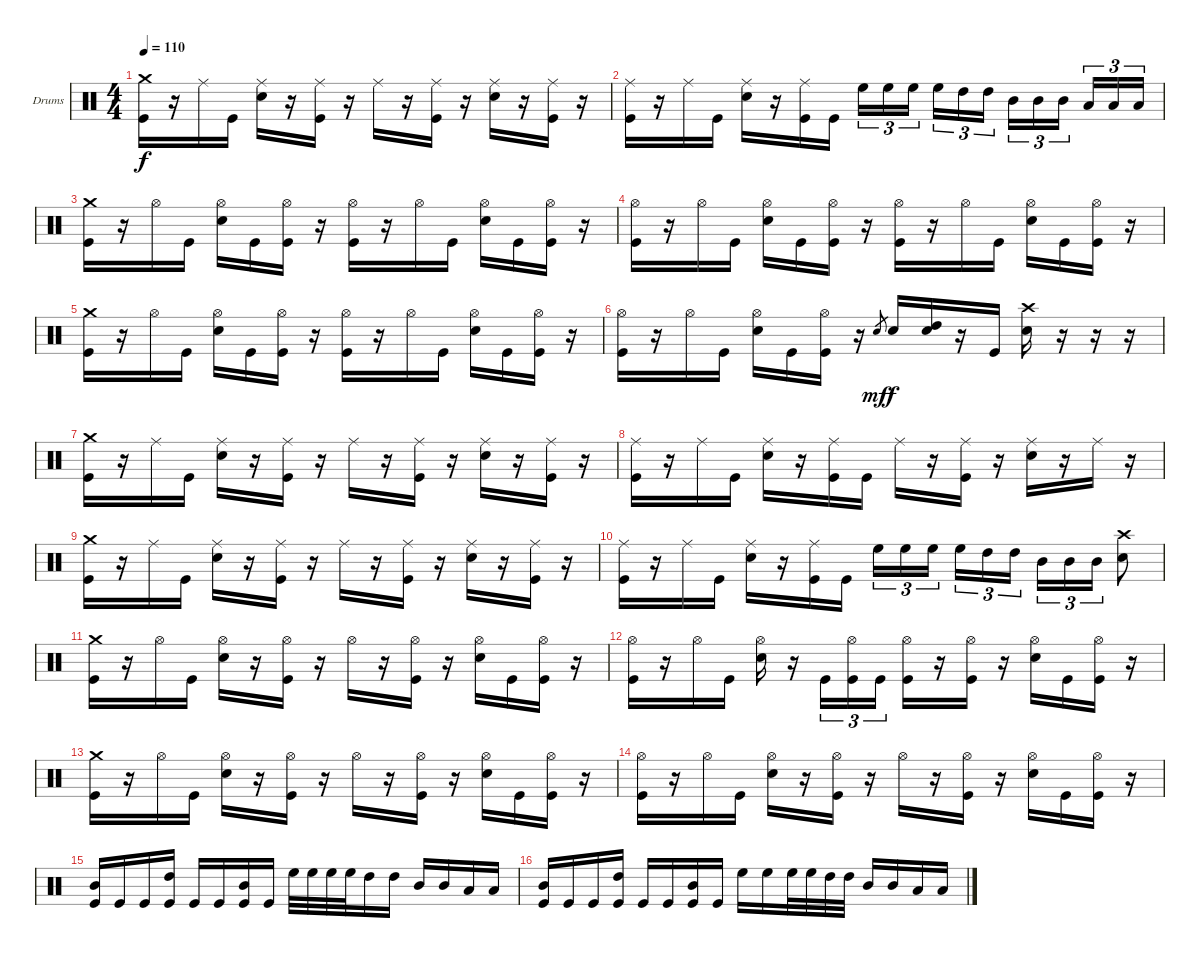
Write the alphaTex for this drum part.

\bracketExtendMode groupsimilarinstruments
\firstSystemTrackNameOrientation horizontal
\otherSystemsTrackNameOrientation horizontal
\track ("Nick Menza" "Drums") {instrument percussion}
\staff {score}
\articulation defaults
\ts (4 4)
\tempo 110
\clef neutral
\ks c
("Crash medium (hit)" "Kick (hit)").16{dy f} r.16 "Ride (middle)".16 "Kick (hit)".16 ("Ride (middle)" "Snare (hit) 2").16 r.16 ("Ride (middle)" "Kick (hit)").16 r.16 "Ride (middle)".16 r.16 ("Ride (middle)" "Kick (hit)").16 r.16 ("Ride (middle)" "Snare (hit) 2").16 r.16 ("Ride (middle)" "Kick (hit)").16 r.16 |
("Ride (middle)" "Kick (hit)").16 r.16 "Ride (middle)".16 "Kick (hit)".16 ("Ride (middle)" "Snare (hit) 2").16 r.16 ("Ride (middle)" "Kick (hit)").16 "Kick (hit)".16 "High Floor Tom (hit)".16{tu (3 2)} "High Floor Tom (hit)".16{tu (3 2)} "High Floor Tom (hit)".16{tu (3 2)} "High Floor Tom (hit)".16{tu (3 2)} "High Tom (hit)".16{tu (3 2)} "High Tom (hit)".16{tu (3 2)} "Mid Tom (hit)".16{tu (3 2)} "Mid Tom (hit)".16{tu (3 2)} "Mid Tom (hit)".16{tu (3 2)} "Low Tom (hit)".16{tu (3 2)} "Low Tom (hit)".16{tu (3 2)} "Low Tom (hit)".16{tu (3 2)} |
("Crash medium (hit)" "Kick (hit)").16 r.16 "Hi-Hat (open)".16 "Kick (hit)".16 ("Hi-Hat (open)" "Snare (hit) 2").16 "Kick (hit)".16 ("Hi-Hat (open)" "Kick (hit)").16 r.16 ("Hi-Hat (open)" "Kick (hit)").16 r.16 "Hi-Hat (open)".16 "Kick (hit)".16 ("Hi-Hat (open)" "Snare (hit) 2").16 "Kick (hit)".16 ("Hi-Hat (open)" "Kick (hit)").16 r.16 |
("Hi-Hat (open)" "Kick (hit)").16 r.16 "Hi-Hat (open)".16 "Kick (hit)".16 ("Hi-Hat (open)" "Snare (hit) 2").16 "Kick (hit)".16 ("Hi-Hat (open)" "Kick (hit)").16 r.16 ("Hi-Hat (open)" "Kick (hit)").16 r.16 "Hi-Hat (open)".16 "Kick (hit)".16 ("Hi-Hat (open)" "Snare (hit) 2").16 "Kick (hit)".16 ("Hi-Hat (open)" "Kick (hit)").16 r.16 |
("Crash medium (hit)" "Kick (hit)").16 r.16 "Hi-Hat (open)".16 "Kick (hit)".16 ("Hi-Hat (open)" "Snare (hit) 2").16 "Kick (hit)".16 ("Hi-Hat (open)" "Kick (hit)").16 r.16 ("Hi-Hat (open)" "Kick (hit)").16 r.16 "Hi-Hat (open)".16 "Kick (hit)".16 ("Hi-Hat (open)" "Snare (hit) 2").16 "Kick (hit)".16 ("Hi-Hat (open)" "Kick (hit)").16 r.16 |
("Hi-Hat (open)" "Kick (hit)").16 r.16 "Hi-Hat (open)".16 "Kick (hit)".16 ("Hi-Hat (open)" "Snare (hit) 2").16 "Kick (hit)".16 ("Hi-Hat (open)" "Kick (hit)").16 r.16 "Snare (hit) 2".8{gr dy mf} "Snare (hit) 2".16{dy f} ("High Tom (hit)" "Snare (hit) 2").16 r.16 "Kick (hit)".16 ("Crash high (hit)" "Snare (hit) 2").16 r.16 r.16 r.16 |
("Crash medium (hit)" "Kick (hit)").16 r.16 "Ride (middle)".16 "Kick (hit)".16 ("Ride (middle)" "Snare (hit) 2").16 r.16 ("Ride (middle)" "Kick (hit)").16 r.16 "Ride (middle)".16 r.16 ("Ride (middle)" "Kick (hit)").16 r.16 ("Ride (middle)" "Snare (hit) 2").16 r.16 ("Ride (middle)" "Kick (hit)").16 r.16 |
("Ride (middle)" "Kick (hit)").16 r.16 "Ride (middle)".16 "Kick (hit)".16 ("Ride (middle)" "Snare (hit) 2").16 r.16 ("Ride (middle)" "Kick (hit)").16 "Kick (hit)".16 "Ride (middle)".16 r.16 ("Ride (middle)" "Kick (hit)").16 r.16 ("Ride (middle)" "Snare (hit) 2").16 r.16 "Ride (middle)".16 r.16 |
("Crash medium (hit)" "Kick (hit)").16 r.16 "Ride (middle)".16 "Kick (hit)".16 ("Ride (middle)" "Snare (hit) 2").16 r.16 ("Ride (middle)" "Kick (hit)").16 r.16 "Ride (middle)".16 r.16 ("Ride (middle)" "Kick (hit)").16 r.16 ("Ride (middle)" "Snare (hit) 2").16 r.16 ("Ride (middle)" "Kick (hit)").16 r.16 |
("Ride (middle)" "Kick (hit)").16 r.16 "Ride (middle)".16 "Kick (hit)".16 ("Ride (middle)" "Snare (hit) 2").16 r.16 ("Ride (middle)" "Kick (hit)").16 "Kick (hit)".16 "High Floor Tom (hit)".16{tu (3 2)} "High Floor Tom (hit)".16{tu (3 2)} "High Floor Tom (hit)".16{tu (3 2)} "High Floor Tom (hit)".16{tu (3 2)} "High Tom (hit)".16{tu (3 2)} "High Tom (hit)".16{tu (3 2)} "Mid Tom (hit)".16{tu (3 2)} "Mid Tom (hit)".16{tu (3 2)} "Mid Tom (hit)".16{tu (3 2)} ("Crash high (hit)" "Snare (hit) 2").8 |
("Crash medium (hit)" "Kick (hit)").16 r.16 "Hi-Hat (open)".16 "Kick (hit)".16 ("Hi-Hat (open)" "Snare (hit) 2").16 r.16 ("Hi-Hat (open)" "Kick (hit)").16 r.16 "Hi-Hat (open)".16 r.16 ("Hi-Hat (open)" "Kick (hit)").16 r.16 ("Hi-Hat (open)" "Snare (hit) 2").16 "Kick (hit)".16 ("Hi-Hat (open)" "Kick (hit)").16 r.16 |
("Hi-Hat (open)" "Kick (hit)").16 r.16 "Hi-Hat (open)".16 "Kick (hit)".16 ("Hi-Hat (open)" "Snare (hit) 2").16 r.16 "Kick (hit)".16{tu (3 2)} ("Hi-Hat (open)" "Kick (hit)").16{tu (3 2)} "Kick (hit)".16{tu (3 2)} ("Hi-Hat (open)" "Kick (hit)").16 r.16 ("Hi-Hat (open)" "Kick (hit)").16 r.16 ("Hi-Hat (open)" "Snare (hit) 2").16 "Kick (hit)".16 ("Hi-Hat (open)" "Kick (hit)").16 r.16 |
("Crash medium (hit)" "Kick (hit)").16 r.16 "Hi-Hat (open)".16 "Kick (hit)".16 ("Hi-Hat (open)" "Snare (hit) 2").16 r.16 ("Hi-Hat (open)" "Kick (hit)").16 r.16 "Hi-Hat (open)".16 r.16 ("Hi-Hat (open)" "Kick (hit)").16 r.16 ("Hi-Hat (open)" "Snare (hit) 2").16 "Kick (hit)".16 ("Hi-Hat (open)" "Kick (hit)").16 r.16 |
("Hi-Hat (open)" "Kick (hit)").16 r.16 "Hi-Hat (open)".16 "Kick (hit)".16 ("Hi-Hat (open)" "Snare (hit) 2").16 r.16 ("Hi-Hat (open)" "Kick (hit)").16 r.16 "Hi-Hat (open)".16 r.16 ("Hi-Hat (open)" "Kick (hit)").16 r.16 ("Hi-Hat (open)" "Snare (hit) 2").16 "Kick (hit)".16 ("Hi-Hat (open)" "Kick (hit)").16 r.16 |
("Mid Tom (hit)" "Kick (hit)").16 "Kick (hit)".16 "Kick (hit)".16 ("High Tom (hit)" "Kick (hit)").16 "Kick (hit)".16 "Kick (hit)".16 ("Mid Tom (hit)" "Kick (hit)").16 "Kick (hit)".16 "High Floor Tom (hit)".32 "High Floor Tom (hit)".32 "High Floor Tom (hit)".32 "High Floor Tom (hit)".32 "High Tom (hit)".16 "High Tom (hit)".16 "Mid Tom (hit)".16 "Mid Tom (hit)".16 "Low Tom (hit)".16 "Low Tom (hit)".16 |
("Mid Tom (hit)" "Kick (hit)").16 "Kick (hit)".16 "Kick (hit)".16 ("High Tom (hit)" "Kick (hit)").16 "Kick (hit)".16 "Kick (hit)".16 ("Mid Tom (hit)" "Kick (hit)").16 "Kick (hit)".16 "High Floor Tom (hit)".16 "High Floor Tom (hit)".16 "High Floor Tom (hit)".32 "High Floor Tom (hit)".32 "High Tom (hit)".32 "High Tom (hit)".32 "Mid Tom (hit)".16 "Mid Tom (hit)".16 "Low Tom (hit)".16 "Low Tom (hit)".16
